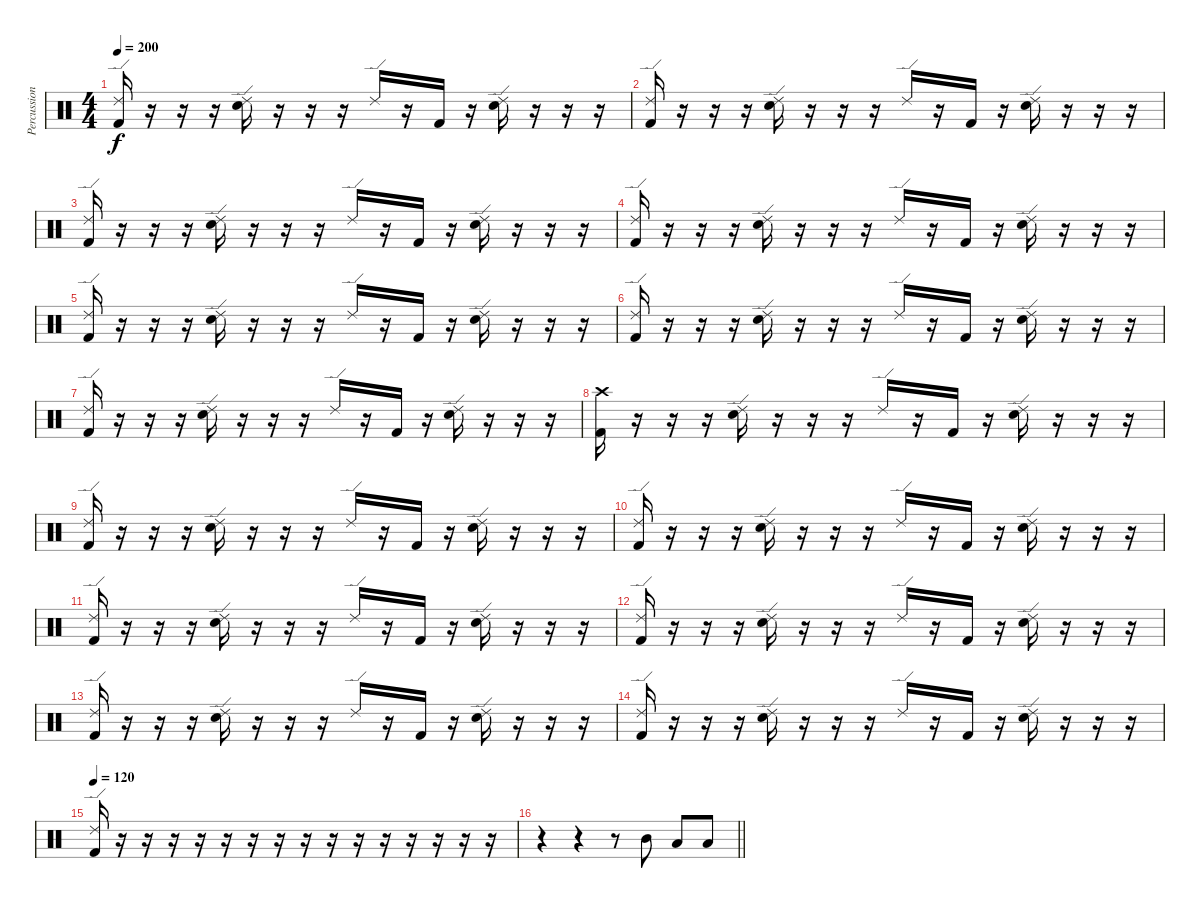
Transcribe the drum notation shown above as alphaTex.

\track ("Percussion" "Percussion") {instrument percussion}
\staff {score}
\articulation defaults
\ts (4 4)
\tempo 200
\clef neutral
\ks c
("Ride (edge) 2" "Kick (hit) 2").16{dy f} r.16 r.16 r.16 ("Ride (edge) 2" "Electric Snare (hit)").16 r.16 r.16 r.16 "Ride (edge) 2".16 r.16 "Kick (hit) 2".16 r.16 ("Ride (edge) 2" "Electric Snare (hit)").16 r.16 r.16 r.16 |
("Ride (edge) 2" "Kick (hit) 2").16 r.16 r.16 r.16 ("Ride (edge) 2" "Electric Snare (hit)").16 r.16 r.16 r.16 "Ride (edge) 2".16 r.16 "Kick (hit) 2".16 r.16 ("Ride (edge) 2" "Electric Snare (hit)").16 r.16 r.16 r.16 |
("Ride (edge) 2" "Kick (hit) 2").16 r.16 r.16 r.16 ("Ride (edge) 2" "Electric Snare (hit)").16 r.16 r.16 r.16 "Ride (edge) 2".16 r.16 "Kick (hit) 2".16 r.16 ("Ride (edge) 2" "Electric Snare (hit)").16 r.16 r.16 r.16 |
("Ride (edge) 2" "Kick (hit) 2").16 r.16 r.16 r.16 ("Ride (edge) 2" "Electric Snare (hit)").16 r.16 r.16 r.16 "Ride (edge) 2".16 r.16 "Kick (hit) 2".16 r.16 ("Ride (edge) 2" "Electric Snare (hit)").16 r.16 r.16 r.16 |
("Ride (edge) 2" "Kick (hit) 2").16 r.16 r.16 r.16 ("Ride (edge) 2" "Electric Snare (hit)").16 r.16 r.16 r.16 "Ride (edge) 2".16 r.16 "Kick (hit) 2".16 r.16 ("Ride (edge) 2" "Electric Snare (hit)").16 r.16 r.16 r.16 |
("Ride (edge) 2" "Kick (hit) 2").16 r.16 r.16 r.16 ("Ride (edge) 2" "Electric Snare (hit)").16 r.16 r.16 r.16 "Ride (edge) 2".16 r.16 "Kick (hit) 2".16 r.16 ("Ride (edge) 2" "Electric Snare (hit)").16 r.16 r.16 r.16 |
("Ride (edge) 2" "Kick (hit) 2").16 r.16 r.16 r.16 ("Ride (edge) 2" "Electric Snare (hit)").16 r.16 r.16 r.16 "Ride (edge) 2".16 r.16 "Kick (hit) 2".16 r.16 ("Ride (edge) 2" "Electric Snare (hit)").16 r.16 r.16 r.16 |
("Crash high (hit)" "Kick (hit) 2").16 r.16 r.16 r.16 ("Ride (edge) 2" "Electric Snare (hit)").16 r.16 r.16 r.16 "Ride (edge) 2".16 r.16 "Kick (hit) 2".16 r.16 ("Ride (edge) 2" "Electric Snare (hit)").16 r.16 r.16 r.16 |
("Ride (edge) 2" "Kick (hit) 2").16 r.16 r.16 r.16 ("Ride (edge) 2" "Electric Snare (hit)").16 r.16 r.16 r.16 "Ride (edge) 2".16 r.16 "Kick (hit) 2".16 r.16 ("Ride (edge) 2" "Electric Snare (hit)").16 r.16 r.16 r.16 |
("Ride (edge) 2" "Kick (hit) 2").16 r.16 r.16 r.16 ("Ride (edge) 2" "Electric Snare (hit)").16 r.16 r.16 r.16 "Ride (edge) 2".16 r.16 "Kick (hit) 2".16 r.16 ("Ride (edge) 2" "Electric Snare (hit)").16 r.16 r.16 r.16 |
("Ride (edge) 2" "Kick (hit) 2").16 r.16 r.16 r.16 ("Ride (edge) 2" "Electric Snare (hit)").16 r.16 r.16 r.16 "Ride (edge) 2".16 r.16 "Kick (hit) 2".16 r.16 ("Ride (edge) 2" "Electric Snare (hit)").16 r.16 r.16 r.16 |
("Ride (edge) 2" "Kick (hit) 2").16 r.16 r.16 r.16 ("Ride (edge) 2" "Electric Snare (hit)").16 r.16 r.16 r.16 "Ride (edge) 2".16 r.16 "Kick (hit) 2".16 r.16 ("Ride (edge) 2" "Electric Snare (hit)").16 r.16 r.16 r.16 |
("Ride (edge) 2" "Kick (hit) 2").16 r.16 r.16 r.16 ("Ride (edge) 2" "Electric Snare (hit)").16 r.16 r.16 r.16 "Ride (edge) 2".16 r.16 "Kick (hit) 2".16 r.16 ("Ride (edge) 2" "Electric Snare (hit)").16 r.16 r.16 r.16 |
("Ride (edge) 2" "Kick (hit) 2").16 r.16 r.16 r.16 ("Ride (edge) 2" "Electric Snare (hit)").16 r.16 r.16 r.16 "Ride (edge) 2".16 r.16 "Kick (hit) 2".16 r.16 ("Ride (edge) 2" "Electric Snare (hit)").16 r.16 r.16 r.16 |
\tempo 120
("Ride (edge) 2" "Kick (hit) 2").16 r.16 r.16 r.16 r.16 r.16 r.16 r.16 r.16 r.16 r.16 r.16 r.16 r.16 r.16 r.16 |
\barLineRight lightlight
r.4 r.4 r.8 "Mid Tom (hit)".8 "Low Tom (hit)".8 "Low Floor Tom (hit)".8
